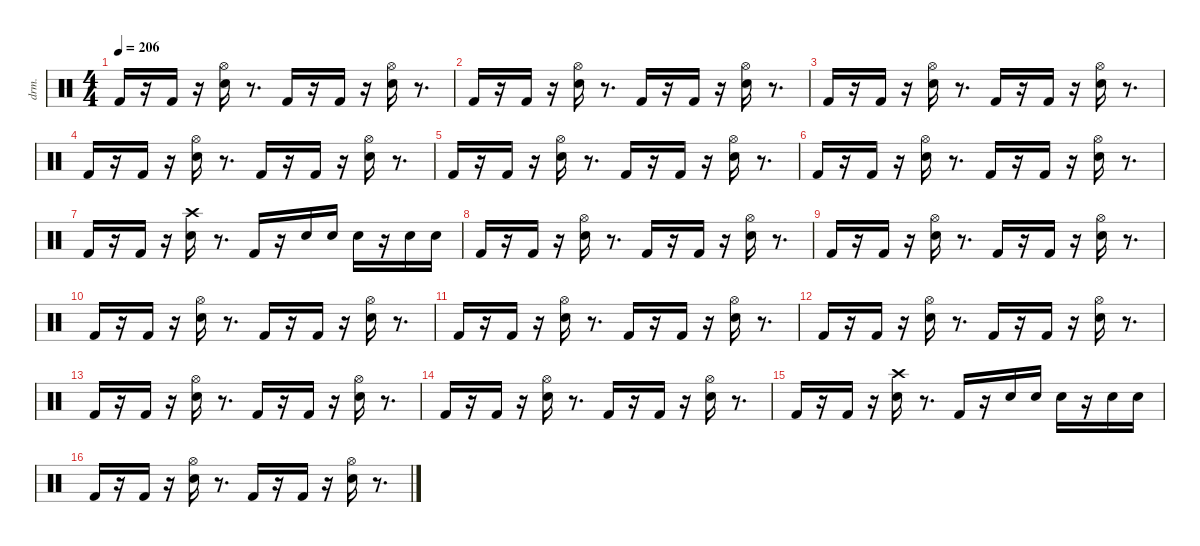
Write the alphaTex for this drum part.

\defaultSystemsLayout 4
\hideDynamics
\bracketExtendMode nobrackets
\otherSystemsTrackNameOrientation horizontal
\track ("EZdrummer 3" "drm.") {instrument percussion}
\staff {score}
\articulation defaults
\ts (4 4)
\tempo 206
\clef neutral
\ks aminor "Kick (hit) 2".16{dy mf beam Up}
r.16{beam Up} "Kick (hit) 2".16{dy ff beam Up} r.16{beam Up} ("Snare (hit) 2" "Hi-Hat (open)"{acc #}).16{beam Down} r.8{d beam Down} "Kick (hit) 2".16{dy mf beam Up} r.16{beam Up} "Kick (hit) 2".16{dy ff beam Up} r.16{beam Up} ("Snare (hit) 2" "Hi-Hat (open)"{acc #}).16{beam Down} r.8{d beam Down} |
"Kick (hit) 2".16{dy mf beam Up} r.16{beam Up} "Kick (hit) 2".16{dy ff beam Up} r.16{beam Up} ("Snare (hit) 2" "Hi-Hat (open)"{acc #}).16{beam Down} r.8{d beam Down} "Kick (hit) 2".16{dy mf beam Up} r.16{beam Up} "Kick (hit) 2".16{dy ff beam Up} r.16{beam Up} ("Snare (hit) 2" "Hi-Hat (open)"{acc #}).16{beam Down} r.8{d beam Down} |
"Kick (hit) 2".16{dy mf beam Up} r.16{beam Up} "Kick (hit) 2".16{dy ff beam Up} r.16{beam Up} ("Snare (hit) 2" "Hi-Hat (open)"{acc #}).16{beam Down} r.8{d beam Down} "Kick (hit) 2".16{dy mf beam Up} r.16{beam Up} "Kick (hit) 2".16{dy ff beam Up} r.16{beam Up} ("Snare (hit) 2" "Hi-Hat (open)"{acc #}).16{beam Down} r.8{d beam Down} |
"Kick (hit) 2".16{dy mf beam Up} r.16{beam Up} "Kick (hit) 2".16{dy ff beam Up} r.16{beam Up} ("Snare (hit) 2" "Hi-Hat (open)"{acc #}).16{beam Down} r.8{d beam Down} "Kick (hit) 2".16{dy mf beam Up} r.16{beam Up} "Kick (hit) 2".16{dy ff beam Up} r.16{beam Up} ("Snare (hit) 2" "Hi-Hat (open)"{acc #}).16{beam Down} r.8{d beam Down} |
"Kick (hit) 2".16{dy mf beam Up} r.16{beam Up} "Kick (hit) 2".16{dy ff beam Up} r.16{beam Up} ("Snare (hit) 2" "Hi-Hat (open)"{acc #}).16{beam Down} r.8{d beam Down} "Kick (hit) 2".16{dy mf beam Up} r.16{beam Up} "Kick (hit) 2".16{dy ff beam Up} r.16{beam Up} ("Snare (hit) 2" "Hi-Hat (open)"{acc #}).16{beam Down} r.8{d beam Down} |
"Kick (hit) 2".16{dy mf beam Up} r.16{beam Up} "Kick (hit) 2".16{dy ff beam Up} r.16{beam Up} ("Snare (hit) 2" "Hi-Hat (open)"{acc #}).16{beam Down} r.8{d beam Down} "Kick (hit) 2".16{dy mf beam Up} r.16{beam Up} "Kick (hit) 2".16{dy ff beam Up} r.16{beam Up} ("Snare (hit) 2" "Hi-Hat (open)"{acc #}).16{beam Down} r.8{d beam Down} |
"Kick (hit) 2".16{dy mf beam Up} r.16{beam Up} "Kick (hit) 2".16{dy ff beam Up} r.16{beam Up} ("Snare (hit) 2" "Crash high (hit)"{acc #}).16{dy fff beam Down} r.8{d beam Down} "Kick (hit) 2".16{dy mf beam Up} r.16{beam Up} "Snare (hit) 2".16{beam Down} "Snare (hit) 2".16{dy p beam Down} "Snare (hit) 2".16{dy ff beam Down} r.16{beam Down} "Snare (hit) 2".16{dy mf beam Down} "Snare (hit) 2".16{dy p beam Down} |
"Kick (hit) 2".16{dy mf beam Up} r.16{beam Up} "Kick (hit) 2".16{dy ff beam Up} r.16{beam Up} ("Snare (hit) 2" "Hi-Hat (open)"{acc #}).16{beam Down} r.8{d beam Down} "Kick (hit) 2".16{dy mf beam Up} r.16{beam Up} "Kick (hit) 2".16{dy ff beam Up} r.16{beam Up} ("Snare (hit) 2" "Hi-Hat (open)"{acc #}).16{beam Down} r.8{d beam Down} |
"Kick (hit) 2".16{dy mf beam Up} r.16{beam Up} "Kick (hit) 2".16{dy ff beam Up} r.16{beam Up} ("Snare (hit) 2" "Hi-Hat (open)"{acc #}).16{beam Down} r.8{d beam Down} "Kick (hit) 2".16{dy mf beam Up} r.16{beam Up} "Kick (hit) 2".16{dy ff beam Up} r.16{beam Up} ("Snare (hit) 2" "Hi-Hat (open)"{acc #}).16{beam Down} r.8{d beam Down} |
"Kick (hit) 2".16{dy mf beam Up} r.16{beam Up} "Kick (hit) 2".16{dy ff beam Up} r.16{beam Up} ("Snare (hit) 2" "Hi-Hat (open)"{acc #}).16{beam Down} r.8{d beam Down} "Kick (hit) 2".16{dy mf beam Up} r.16{beam Up} "Kick (hit) 2".16{dy ff beam Up} r.16{beam Up} ("Snare (hit) 2" "Hi-Hat (open)"{acc #}).16{beam Down} r.8{d beam Down} |
"Kick (hit) 2".16{dy mf beam Up} r.16{beam Up} "Kick (hit) 2".16{dy ff beam Up} r.16{beam Up} ("Snare (hit) 2" "Hi-Hat (open)"{acc #}).16{beam Down} r.8{d beam Down} "Kick (hit) 2".16{dy mf beam Up} r.16{beam Up} "Kick (hit) 2".16{dy ff beam Up} r.16{beam Up} ("Snare (hit) 2" "Hi-Hat (open)"{acc #}).16{beam Down} r.8{d beam Down} |
"Kick (hit) 2".16{dy mf beam Up} r.16{beam Up} "Kick (hit) 2".16{dy ff beam Up} r.16{beam Up} ("Snare (hit) 2" "Hi-Hat (open)"{acc #}).16{beam Down} r.8{d beam Down} "Kick (hit) 2".16{dy mf beam Up} r.16{beam Up} "Kick (hit) 2".16{dy ff beam Up} r.16{beam Up} ("Snare (hit) 2" "Hi-Hat (open)"{acc #}).16{beam Down} r.8{d beam Down} |
"Kick (hit) 2".16{dy mf beam Up} r.16{beam Up} "Kick (hit) 2".16{dy ff beam Up} r.16{beam Up} ("Snare (hit) 2" "Hi-Hat (open)"{acc #}).16{beam Down} r.8{d beam Down} "Kick (hit) 2".16{dy mf beam Up} r.16{beam Up} "Kick (hit) 2".16{dy ff beam Up} r.16{beam Up} ("Snare (hit) 2" "Hi-Hat (open)"{acc #}).16{beam Down} r.8{d beam Down} |
"Kick (hit) 2".16{dy mf beam Up} r.16{beam Up} "Kick (hit) 2".16{dy ff beam Up} r.16{beam Up} ("Snare (hit) 2" "Hi-Hat (open)"{acc #}).16{beam Down} r.8{d beam Down} "Kick (hit) 2".16{dy mf beam Up} r.16{beam Up} "Kick (hit) 2".16{dy ff beam Up} r.16{beam Up} ("Snare (hit) 2" "Hi-Hat (open)"{acc #}).16{beam Down} r.8{d beam Down} |
"Kick (hit) 2".16{dy mf beam Up} r.16{beam Up} "Kick (hit) 2".16{dy ff beam Up} r.16{beam Up} ("Snare (hit) 2" "Crash high (hit)"{acc #}).16{dy fff beam Down} r.8{d beam Down} "Kick (hit) 2".16{dy mf beam Up} r.16{beam Up} "Snare (hit) 2".16{beam Down} "Snare (hit) 2".16{dy p beam Down} "Snare (hit) 2".16{dy ff beam Down} r.16{beam Down} "Snare (hit) 2".16{dy mf beam Down} "Snare (hit) 2".16{dy p beam Down} |
"Kick (hit) 2".16{dy mf beam Up} r.16{beam Up} "Kick (hit) 2".16{dy ff beam Up} r.16{beam Up} ("Snare (hit) 2" "Hi-Hat (open)"{acc #}).16{beam Down} r.8{d beam Down} "Kick (hit) 2".16{dy mf beam Up} r.16{beam Up} "Kick (hit) 2".16{dy ff beam Up} r.16{beam Up} ("Snare (hit) 2" "Hi-Hat (open)"{acc #}).16{beam Down} r.8{d beam Down}
